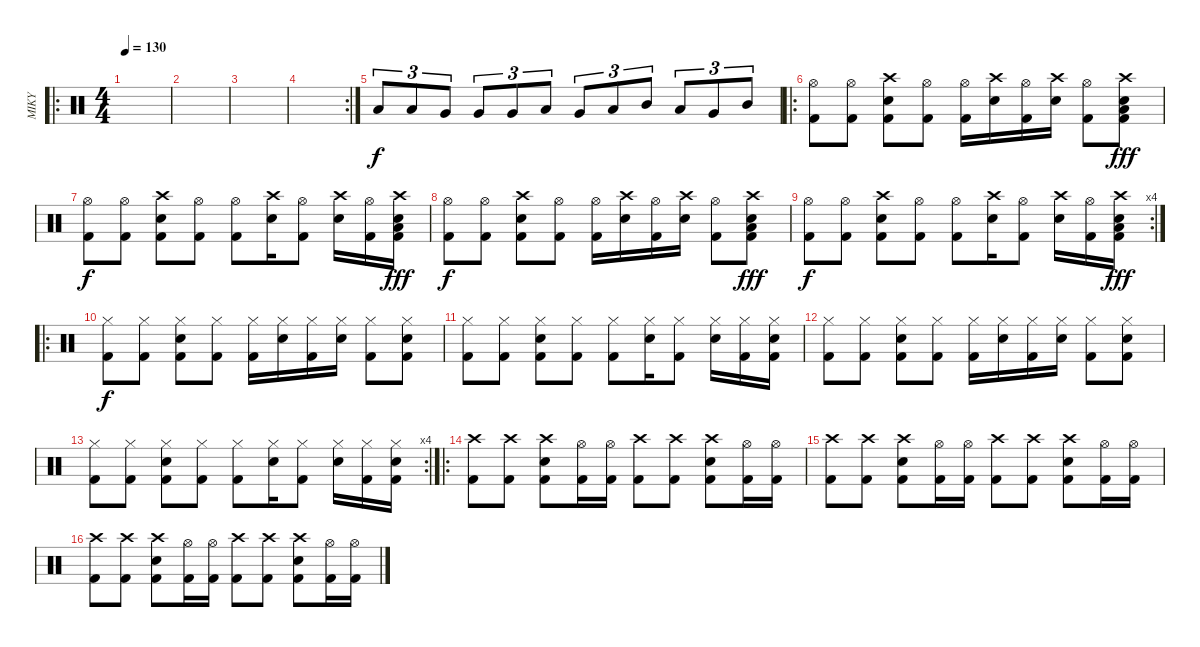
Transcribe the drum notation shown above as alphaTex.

\track ("MIKY" "MIKY") {instrument percussion}
\staff {score}
\articulation defaults
\ro
\ts (4 4)
\tempo 130
\clef neutral
\ks c
|
|
|
\rc 2
|
"Low Tom (hit)".8{tu (3 2)} "Low Tom (hit)".8{tu (3 2)} "Very Low Tom (hit)".8{tu (3 2)} "Very Low Tom (hit)".8{tu (3 2)} "Very Low Tom (hit)".8{tu (3 2)} "Low Floor Tom (hit)".8{tu (3 2)} "Very Low Tom (hit)".8{tu (3 2)} "Low Tom (hit)".8{tu (3 2)} "Mid Tom (hit)".8{tu (3 2)} "Low Tom (hit)".8{tu (3 2)} "Very Low Tom (hit)".8{tu (3 2)} "Mid Tom (hit)".8{tu (3 2)} |
\ro
("Hi-Hat (open)" "Kick (hit) 2").8 ("Hi-Hat (open)" "Kick (hit) 2").8 ("Crash high (hit)" "Snare (hit) 2" "Kick (hit) 2").8 ("Hi-Hat (open)" "Kick (hit) 2").8 ("Hi-Hat (open)" "Kick (hit) 2").16 ("Crash high (hit)" "Snare (hit) 2").16 ("Hi-Hat (open)" "Kick (hit) 2").16 ("Crash high (hit)" "Snare (hit) 2").16 ("Hi-Hat (open)" "Kick (hit) 2").8 ("Low Floor Tom (hit)" "Crash high (hit)" "Snare (hit) 2" "Kick (hit) 2").8{dy fff} |
("Hi-Hat (open)" "Kick (hit) 2").8{dy f} ("Hi-Hat (open)" "Kick (hit) 2").8 ("Crash high (hit)" "Snare (hit) 2" "Kick (hit) 2").8 ("Hi-Hat (open)" "Kick (hit) 2").8 ("Hi-Hat (open)" "Kick (hit) 2").8 ("Crash high (hit)" "Snare (hit) 2").16 ("Hi-Hat (open)" "Kick (hit) 2").8 ("Crash high (hit)" "Snare (hit) 2").16 ("Hi-Hat (open)" "Kick (hit) 2").16 ("Low Floor Tom (hit)" "Crash high (hit)" "Snare (hit) 2" "Kick (hit) 2").16{dy fff} |
("Hi-Hat (open)" "Kick (hit) 2").8{dy f} ("Hi-Hat (open)" "Kick (hit) 2").8 ("Crash high (hit)" "Snare (hit) 2" "Kick (hit) 2").8 ("Hi-Hat (open)" "Kick (hit) 2").8 ("Hi-Hat (open)" "Kick (hit) 2").16 ("Crash high (hit)" "Snare (hit) 2").16 ("Hi-Hat (open)" "Kick (hit) 2").16 ("Crash high (hit)" "Snare (hit) 2").16 ("Hi-Hat (open)" "Kick (hit) 2").8 ("Low Floor Tom (hit)" "Crash high (hit)" "Snare (hit) 2" "Kick (hit) 2").8{dy fff} |
\rc 4
("Hi-Hat (open)" "Kick (hit) 2").8{dy f} ("Hi-Hat (open)" "Kick (hit) 2").8 ("Crash high (hit)" "Snare (hit) 2" "Kick (hit) 2").8 ("Hi-Hat (open)" "Kick (hit) 2").8 ("Hi-Hat (open)" "Kick (hit) 2").8 ("Crash high (hit)" "Snare (hit) 2").16 ("Hi-Hat (open)" "Kick (hit) 2").8 ("Crash high (hit)" "Snare (hit) 2").16 ("Hi-Hat (open)" "Kick (hit) 2").16 ("Low Floor Tom (hit)" "Crash high (hit)" "Snare (hit) 2" "Kick (hit) 2").16{dy fff} |
\ro
("Hi-Hat (closed)" "Kick (hit) 2").8{dy f} ("Hi-Hat (closed)" "Kick (hit) 2").8 ("Hi-Hat (closed)" "Snare (hit) 2" "Kick (hit) 2").8 ("Hi-Hat (closed)" "Kick (hit) 2").8 ("Hi-Hat (closed)" "Kick (hit) 2").16 ("Hi-Hat (closed)" "Snare (hit) 2").16 ("Hi-Hat (closed)" "Kick (hit) 2").16 ("Hi-Hat (closed)" "Snare (hit) 2").16 ("Hi-Hat (closed)" "Kick (hit) 2").8 ("Hi-Hat (closed)" "Snare (hit) 2" "Kick (hit) 2").8 |
("Hi-Hat (closed)" "Kick (hit) 2").8 ("Hi-Hat (closed)" "Kick (hit) 2").8 ("Hi-Hat (closed)" "Snare (hit) 2" "Kick (hit) 2").8 ("Hi-Hat (closed)" "Kick (hit) 2").8 ("Hi-Hat (closed)" "Kick (hit) 2").8 ("Hi-Hat (closed)" "Snare (hit) 2").16 ("Hi-Hat (closed)" "Kick (hit) 2").8 ("Hi-Hat (closed)" "Snare (hit) 2").16 ("Hi-Hat (closed)" "Kick (hit) 2").16 ("Hi-Hat (closed)" "Snare (hit) 2" "Kick (hit) 2").16 |
("Hi-Hat (closed)" "Kick (hit) 2").8 ("Hi-Hat (closed)" "Kick (hit) 2").8 ("Hi-Hat (closed)" "Snare (hit) 2" "Kick (hit) 2").8 ("Hi-Hat (closed)" "Kick (hit) 2").8 ("Hi-Hat (closed)" "Kick (hit) 2").16 ("Hi-Hat (closed)" "Snare (hit) 2").16 ("Hi-Hat (closed)" "Kick (hit) 2").16 ("Hi-Hat (closed)" "Snare (hit) 2").16 ("Hi-Hat (closed)" "Kick (hit) 2").8 ("Hi-Hat (closed)" "Snare (hit) 2" "Kick (hit) 2").8 |
\rc 4
("Hi-Hat (closed)" "Kick (hit) 2").8 ("Hi-Hat (closed)" "Kick (hit) 2").8 ("Hi-Hat (closed)" "Snare (hit) 2" "Kick (hit) 2").8 ("Hi-Hat (closed)" "Kick (hit) 2").8 ("Hi-Hat (closed)" "Kick (hit) 2").8 ("Hi-Hat (closed)" "Snare (hit) 2").16 ("Hi-Hat (closed)" "Kick (hit) 2").8 ("Hi-Hat (closed)" "Snare (hit) 2").16 ("Hi-Hat (closed)" "Kick (hit) 2").16 ("Hi-Hat (closed)" "Snare (hit) 2" "Kick (hit) 2").16 |
\ro
("Crash high (hit)" "Kick (hit) 2").8 ("Crash high (hit)" "Kick (hit) 2").8 ("Crash high (hit)" "Snare (hit) 2" "Kick (hit) 2").8 ("Hi-Hat (open)" "Kick (hit) 2").16 ("Hi-Hat (open)" "Kick (hit) 2").16 ("Crash high (hit)" "Kick (hit) 2").8 ("Crash high (hit)" "Kick (hit) 2").8 ("Crash high (hit)" "Snare (hit) 2" "Kick (hit) 2").8 ("Hi-Hat (open)" "Kick (hit) 2").16 ("Hi-Hat (open)" "Kick (hit) 2").16 |
("Crash high (hit)" "Kick (hit) 2").8 ("Crash high (hit)" "Kick (hit) 2").8 ("Crash high (hit)" "Snare (hit) 2" "Kick (hit) 2").8 ("Hi-Hat (open)" "Kick (hit) 2").16 ("Hi-Hat (open)" "Kick (hit) 2").16 ("Crash high (hit)" "Kick (hit) 2").8 ("Crash high (hit)" "Kick (hit) 2").8 ("Crash high (hit)" "Snare (hit) 2" "Kick (hit) 2").8 ("Hi-Hat (open)" "Kick (hit) 2").16 ("Hi-Hat (open)" "Kick (hit) 2").16 |
("Crash high (hit)" "Kick (hit) 2").8 ("Crash high (hit)" "Kick (hit) 2").8 ("Crash high (hit)" "Snare (hit) 2" "Kick (hit) 2").8 ("Hi-Hat (open)" "Kick (hit) 2").16 ("Hi-Hat (open)" "Kick (hit) 2").16 ("Crash high (hit)" "Kick (hit) 2").8 ("Crash high (hit)" "Kick (hit) 2").8 ("Crash high (hit)" "Snare (hit) 2" "Kick (hit) 2").8 ("Hi-Hat (open)" "Kick (hit) 2").16 ("Hi-Hat (open)" "Kick (hit) 2").16
